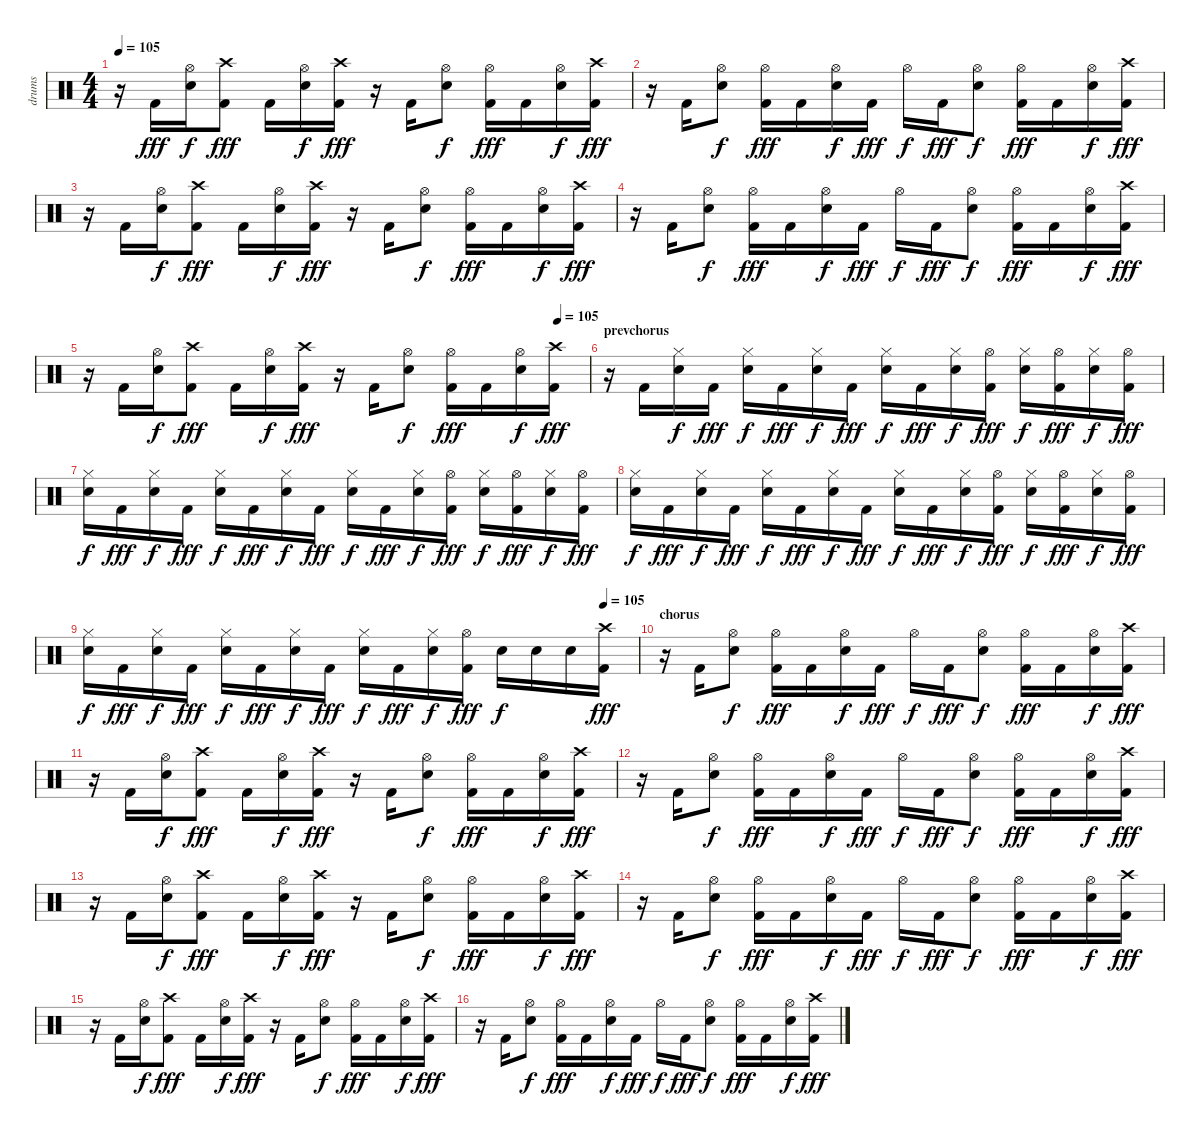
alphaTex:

\track ("drums" "drums") {instrument percussion}
\staff {score}
\articulation defaults
\ts (4 4)
\tempo 105
\clef neutral
\ks c
r.16{dy fff} "Kick (hit) 2".16 ("Hi-Hat (open)" "Snare (hit) 2").16{dy f} ("Crash high (hit)" "Kick (hit) 2").8{dy fff} "Kick (hit) 2".16 ("Hi-Hat (open)" "Snare (hit) 2").16{dy f} ("Crash high (hit)" "Kick (hit) 2").16{dy fff} r.16 "Kick (hit) 2".16 ("Hi-Hat (open)" "Snare (hit) 2").8{dy f} ("Hi-Hat (open)" "Kick (hit) 2").16{dy fff} "Kick (hit) 2".16 ("Hi-Hat (open)" "Snare (hit) 2").16{dy f} ("Crash high (hit)" "Kick (hit) 2").16{dy fff} |
r.16 "Kick (hit) 2".16 ("Hi-Hat (open)" "Snare (hit) 2").8{dy f} ("Hi-Hat (open)" "Kick (hit) 2").16{dy fff} "Kick (hit) 2".16 ("Hi-Hat (open)" "Snare (hit) 2").16{dy f} "Kick (hit) 2".16{dy fff} "Hi-Hat (open)".16{dy f} "Kick (hit) 2".16{dy fff} ("Hi-Hat (open)" "Snare (hit) 2").8{dy f} ("Hi-Hat (open)" "Kick (hit) 2").16{dy fff} "Kick (hit) 2".16 ("Hi-Hat (open)" "Snare (hit) 2").16{dy f} ("Crash high (hit)" "Kick (hit) 2").16{dy fff} |
r.16 "Kick (hit) 2".16 ("Hi-Hat (open)" "Snare (hit) 2").16{dy f} ("Crash high (hit)" "Kick (hit) 2").8{dy fff} "Kick (hit) 2".16 ("Hi-Hat (open)" "Snare (hit) 2").16{dy f} ("Crash high (hit)" "Kick (hit) 2").16{dy fff} r.16 "Kick (hit) 2".16 ("Hi-Hat (open)" "Snare (hit) 2").8{dy f} ("Hi-Hat (open)" "Kick (hit) 2").16{dy fff} "Kick (hit) 2".16 ("Hi-Hat (open)" "Snare (hit) 2").16{dy f} ("Crash high (hit)" "Kick (hit) 2").16{dy fff} |
r.16 "Kick (hit) 2".16 ("Hi-Hat (open)" "Snare (hit) 2").8{dy f} ("Hi-Hat (open)" "Kick (hit) 2").16{dy fff} "Kick (hit) 2".16 ("Hi-Hat (open)" "Snare (hit) 2").16{dy f} "Kick (hit) 2".16{dy fff} "Hi-Hat (open)".16{dy f} "Kick (hit) 2".16{dy fff} ("Hi-Hat (open)" "Snare (hit) 2").8{dy f} ("Hi-Hat (open)" "Kick (hit) 2").16{dy fff} "Kick (hit) 2".16 ("Hi-Hat (open)" "Snare (hit) 2").16{dy f} ("Crash high (hit)" "Kick (hit) 2").16{dy fff} |
\tempo (105 0.9375)
r.16 "Kick (hit) 2".16 ("Hi-Hat (open)" "Snare (hit) 2").16{dy f} ("Crash high (hit)" "Kick (hit) 2").8{dy fff} "Kick (hit) 2".16 ("Hi-Hat (open)" "Snare (hit) 2").16{dy f} ("Crash high (hit)" "Kick (hit) 2").16{dy fff} r.16 "Kick (hit) 2".16 ("Hi-Hat (open)" "Snare (hit) 2").8{dy f} ("Hi-Hat (open)" "Kick (hit) 2").16{dy fff} "Kick (hit) 2".16 ("Hi-Hat (open)" "Snare (hit) 2").16{dy f} ("Crash high (hit)" "Kick (hit) 2").16{dy fff} |
\section ("" "prevchorus")
r.16 "Kick (hit) 2".16 ("Hi-Hat (closed)" "Snare (hit) 2").16{dy f} "Kick (hit) 2".16{dy fff} ("Hi-Hat (closed)" "Snare (hit) 2").16{dy f} "Kick (hit) 2".16{dy fff} ("Hi-Hat (closed)" "Snare (hit) 2").16{dy f} "Kick (hit) 2".16{dy fff} ("Hi-Hat (closed)" "Snare (hit) 2").16{dy f} "Kick (hit) 2".16{dy fff} ("Hi-Hat (closed)" "Snare (hit) 2").16{dy f} ("Hi-Hat (open)" "Kick (hit) 2").16{dy fff} ("Hi-Hat (closed)" "Snare (hit) 2").16{dy f} ("Hi-Hat (open)" "Kick (hit) 2").16{dy fff} ("Hi-Hat (closed)" "Snare (hit) 2").16{dy f} ("Hi-Hat (open)" "Kick (hit) 2").16{dy fff} |
("Hi-Hat (closed)" "Snare (hit) 2").16{dy f} "Kick (hit) 2".16{dy fff} ("Hi-Hat (closed)" "Snare (hit) 2").16{dy f} "Kick (hit) 2".16{dy fff} ("Hi-Hat (closed)" "Snare (hit) 2").16{dy f} "Kick (hit) 2".16{dy fff} ("Hi-Hat (closed)" "Snare (hit) 2").16{dy f} "Kick (hit) 2".16{dy fff} ("Hi-Hat (closed)" "Snare (hit) 2").16{dy f} "Kick (hit) 2".16{dy fff} ("Hi-Hat (closed)" "Snare (hit) 2").16{dy f} ("Hi-Hat (open)" "Kick (hit) 2").16{dy fff} ("Hi-Hat (closed)" "Snare (hit) 2").16{dy f} ("Hi-Hat (open)" "Kick (hit) 2").16{dy fff} ("Hi-Hat (closed)" "Snare (hit) 2").16{dy f} ("Hi-Hat (open)" "Kick (hit) 2").16{dy fff} |
("Hi-Hat (closed)" "Snare (hit) 2").16{dy f} "Kick (hit) 2".16{dy fff} ("Hi-Hat (closed)" "Snare (hit) 2").16{dy f} "Kick (hit) 2".16{dy fff} ("Hi-Hat (closed)" "Snare (hit) 2").16{dy f} "Kick (hit) 2".16{dy fff} ("Hi-Hat (closed)" "Snare (hit) 2").16{dy f} "Kick (hit) 2".16{dy fff} ("Hi-Hat (closed)" "Snare (hit) 2").16{dy f} "Kick (hit) 2".16{dy fff} ("Hi-Hat (closed)" "Snare (hit) 2").16{dy f} ("Hi-Hat (open)" "Kick (hit) 2").16{dy fff} ("Hi-Hat (closed)" "Snare (hit) 2").16{dy f} ("Hi-Hat (open)" "Kick (hit) 2").16{dy fff} ("Hi-Hat (closed)" "Snare (hit) 2").16{dy f} ("Hi-Hat (open)" "Kick (hit) 2").16{dy fff} |
\tempo (105 0.9375)
("Hi-Hat (closed)" "Snare (hit) 2").16{dy f} "Kick (hit) 2".16{dy fff} ("Hi-Hat (closed)" "Snare (hit) 2").16{dy f} "Kick (hit) 2".16{dy fff} ("Hi-Hat (closed)" "Snare (hit) 2").16{dy f} "Kick (hit) 2".16{dy fff} ("Hi-Hat (closed)" "Snare (hit) 2").16{dy f} "Kick (hit) 2".16{dy fff} ("Hi-Hat (closed)" "Snare (hit) 2").16{dy f} "Kick (hit) 2".16{dy fff} ("Hi-Hat (closed)" "Snare (hit) 2").16{dy f} ("Hi-Hat (open)" "Kick (hit) 2").16{dy fff} "Snare (hit) 2".16{dy f} "Snare (hit) 2".16 "Snare (hit) 2".16 ("Crash high (hit)" "Kick (hit) 2").16{dy fff} |
\section ("" "chorus")
r.16 "Kick (hit) 2".16 ("Hi-Hat (open)" "Snare (hit) 2").8{dy f} ("Hi-Hat (open)" "Kick (hit) 2").16{dy fff} "Kick (hit) 2".16 ("Hi-Hat (open)" "Snare (hit) 2").16{dy f} "Kick (hit) 2".16{dy fff} "Hi-Hat (open)".16{dy f} "Kick (hit) 2".16{dy fff} ("Hi-Hat (open)" "Snare (hit) 2").8{dy f} ("Hi-Hat (open)" "Kick (hit) 2").16{dy fff} "Kick (hit) 2".16 ("Hi-Hat (open)" "Snare (hit) 2").16{dy f} ("Crash high (hit)" "Kick (hit) 2").16{dy fff} |
r.16 "Kick (hit) 2".16 ("Hi-Hat (open)" "Snare (hit) 2").16{dy f} ("Crash high (hit)" "Kick (hit) 2").8{dy fff} "Kick (hit) 2".16 ("Hi-Hat (open)" "Snare (hit) 2").16{dy f} ("Crash high (hit)" "Kick (hit) 2").16{dy fff} r.16 "Kick (hit) 2".16 ("Hi-Hat (open)" "Snare (hit) 2").8{dy f} ("Hi-Hat (open)" "Kick (hit) 2").16{dy fff} "Kick (hit) 2".16 ("Hi-Hat (open)" "Snare (hit) 2").16{dy f} ("Crash high (hit)" "Kick (hit) 2").16{dy fff} |
r.16 "Kick (hit) 2".16 ("Hi-Hat (open)" "Snare (hit) 2").8{dy f} ("Hi-Hat (open)" "Kick (hit) 2").16{dy fff} "Kick (hit) 2".16 ("Hi-Hat (open)" "Snare (hit) 2").16{dy f} "Kick (hit) 2".16{dy fff} "Hi-Hat (open)".16{dy f} "Kick (hit) 2".16{dy fff} ("Hi-Hat (open)" "Snare (hit) 2").8{dy f} ("Hi-Hat (open)" "Kick (hit) 2").16{dy fff} "Kick (hit) 2".16 ("Hi-Hat (open)" "Snare (hit) 2").16{dy f} ("Crash high (hit)" "Kick (hit) 2").16{dy fff} |
r.16 "Kick (hit) 2".16 ("Hi-Hat (open)" "Snare (hit) 2").16{dy f} ("Crash high (hit)" "Kick (hit) 2").8{dy fff} "Kick (hit) 2".16 ("Hi-Hat (open)" "Snare (hit) 2").16{dy f} ("Crash high (hit)" "Kick (hit) 2").16{dy fff} r.16 "Kick (hit) 2".16 ("Hi-Hat (open)" "Snare (hit) 2").8{dy f} ("Hi-Hat (open)" "Kick (hit) 2").16{dy fff} "Kick (hit) 2".16 ("Hi-Hat (open)" "Snare (hit) 2").16{dy f} ("Crash high (hit)" "Kick (hit) 2").16{dy fff} |
r.16 "Kick (hit) 2".16 ("Hi-Hat (open)" "Snare (hit) 2").8{dy f} ("Hi-Hat (open)" "Kick (hit) 2").16{dy fff} "Kick (hit) 2".16 ("Hi-Hat (open)" "Snare (hit) 2").16{dy f} "Kick (hit) 2".16{dy fff} "Hi-Hat (open)".16{dy f} "Kick (hit) 2".16{dy fff} ("Hi-Hat (open)" "Snare (hit) 2").8{dy f} ("Hi-Hat (open)" "Kick (hit) 2").16{dy fff} "Kick (hit) 2".16 ("Hi-Hat (open)" "Snare (hit) 2").16{dy f} ("Crash high (hit)" "Kick (hit) 2").16{dy fff} |
r.16 "Kick (hit) 2".16 ("Hi-Hat (open)" "Snare (hit) 2").16{dy f} ("Crash high (hit)" "Kick (hit) 2").8{dy fff} "Kick (hit) 2".16 ("Hi-Hat (open)" "Snare (hit) 2").16{dy f} ("Crash high (hit)" "Kick (hit) 2").16{dy fff} r.16 "Kick (hit) 2".16 ("Hi-Hat (open)" "Snare (hit) 2").8{dy f} ("Hi-Hat (open)" "Kick (hit) 2").16{dy fff} "Kick (hit) 2".16 ("Hi-Hat (open)" "Snare (hit) 2").16{dy f} ("Crash high (hit)" "Kick (hit) 2").16{dy fff} |
r.16 "Kick (hit) 2".16 ("Hi-Hat (open)" "Snare (hit) 2").8{dy f} ("Hi-Hat (open)" "Kick (hit) 2").16{dy fff} "Kick (hit) 2".16 ("Hi-Hat (open)" "Snare (hit) 2").16{dy f} "Kick (hit) 2".16{dy fff} "Hi-Hat (open)".16{dy f} "Kick (hit) 2".16{dy fff} ("Hi-Hat (open)" "Snare (hit) 2").8{dy f} ("Hi-Hat (open)" "Kick (hit) 2").16{dy fff} "Kick (hit) 2".16 ("Hi-Hat (open)" "Snare (hit) 2").16{dy f} ("Crash high (hit)" "Kick (hit) 2").16{dy fff}
